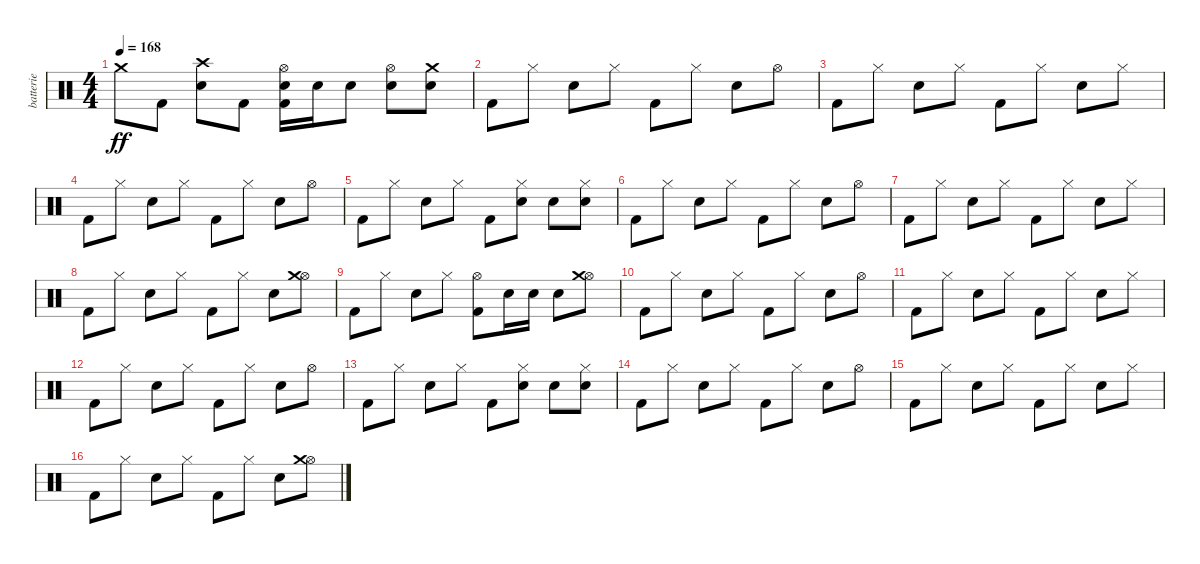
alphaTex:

\track ("batterie" "batterie") {instrument percussion}
\staff {score}
\articulation defaults
\ts (4 4)
\tempo 168
\clef neutral
\ks c "Crash medium (hit)".8{dy ff} "Kick (hit) 2".8
("Electric Snare (hit)" "Crash high (hit)").8 "Kick (hit) 2".8 ("Kick (hit) 2" "Electric Snare (hit)" "Hi-Hat (open)").16 "Electric Snare (hit)".16 "Electric Snare (hit)".8 ("Electric Snare (hit)" "Hi-Hat (open)").8 ("Electric Snare (hit)" "Crash medium (hit)").8 |
"Kick (hit) 2".8 "Hi-Hat (closed)".8 "Electric Snare (hit)".8 "Hi-Hat (closed)".8 "Kick (hit) 2".8 "Hi-Hat (closed)".8 "Electric Snare (hit)".8 "Hi-Hat (open)".8 |
"Kick (hit) 2".8 "Hi-Hat (closed)".8 "Electric Snare (hit)".8 "Hi-Hat (closed)".8 "Kick (hit) 2".8 "Hi-Hat (closed)".8 "Electric Snare (hit)".8 "Hi-Hat (closed)".8 |
"Kick (hit) 2".8 "Hi-Hat (closed)".8 "Electric Snare (hit)".8 "Hi-Hat (closed)".8 "Kick (hit) 2".8 "Hi-Hat (closed)".8 "Electric Snare (hit)".8 "Hi-Hat (open)".8 |
"Kick (hit) 2".8 "Hi-Hat (closed)".8 "Electric Snare (hit)".8 "Hi-Hat (closed)".8 "Kick (hit) 2".8 ("Electric Snare (hit)" "Hi-Hat (closed)").8 "Electric Snare (hit)".8 ("Electric Snare (hit)" "Hi-Hat (closed)").8 |
"Kick (hit) 2".8 "Hi-Hat (closed)".8 "Electric Snare (hit)".8 "Hi-Hat (closed)".8 "Kick (hit) 2".8 "Hi-Hat (closed)".8 "Electric Snare (hit)".8 "Hi-Hat (open)".8 |
"Kick (hit) 2".8 "Hi-Hat (closed)".8 "Electric Snare (hit)".8 "Hi-Hat (closed)".8 "Kick (hit) 2".8 "Hi-Hat (closed)".8 "Electric Snare (hit)".8 "Hi-Hat (closed)".8 |
"Kick (hit) 2".8 "Hi-Hat (closed)".8 "Electric Snare (hit)".8 "Hi-Hat (closed)".8 "Kick (hit) 2".8 "Hi-Hat (closed)".8 "Electric Snare (hit)".8 ("Hi-Hat (open)" "Crash medium (hit)").8 |
"Kick (hit) 2".8 "Hi-Hat (closed)".8 "Electric Snare (hit)".8 "Hi-Hat (closed)".8 ("Kick (hit) 2" "Hi-Hat (open)").8 "Electric Snare (hit)".16 "Electric Snare (hit)".16 "Electric Snare (hit)".8 ("Hi-Hat (open)" "Crash medium (hit)").8 |
"Kick (hit) 2".8 "Hi-Hat (closed)".8 "Electric Snare (hit)".8 "Hi-Hat (closed)".8 "Kick (hit) 2".8 "Hi-Hat (closed)".8 "Electric Snare (hit)".8 "Hi-Hat (open)".8 |
"Kick (hit) 2".8 "Hi-Hat (closed)".8 "Electric Snare (hit)".8 "Hi-Hat (closed)".8 "Kick (hit) 2".8 "Hi-Hat (closed)".8 "Electric Snare (hit)".8 "Hi-Hat (closed)".8 |
"Kick (hit) 2".8 "Hi-Hat (closed)".8 "Electric Snare (hit)".8 "Hi-Hat (closed)".8 "Kick (hit) 2".8 "Hi-Hat (closed)".8 "Electric Snare (hit)".8 "Hi-Hat (open)".8 |
"Kick (hit) 2".8 "Hi-Hat (closed)".8 "Electric Snare (hit)".8 "Hi-Hat (closed)".8 "Kick (hit) 2".8 ("Electric Snare (hit)" "Hi-Hat (closed)").8 "Electric Snare (hit)".8 ("Electric Snare (hit)" "Hi-Hat (closed)").8 |
"Kick (hit) 2".8 "Hi-Hat (closed)".8 "Electric Snare (hit)".8 "Hi-Hat (closed)".8 "Kick (hit) 2".8 "Hi-Hat (closed)".8 "Electric Snare (hit)".8 "Hi-Hat (open)".8 |
"Kick (hit) 2".8 "Hi-Hat (closed)".8 "Electric Snare (hit)".8 "Hi-Hat (closed)".8 "Kick (hit) 2".8 "Hi-Hat (closed)".8 "Electric Snare (hit)".8 "Hi-Hat (closed)".8 |
"Kick (hit) 2".8 "Hi-Hat (closed)".8 "Electric Snare (hit)".8 "Hi-Hat (closed)".8 "Kick (hit) 2".8 "Hi-Hat (closed)".8 "Electric Snare (hit)".8 ("Hi-Hat (open)" "Crash medium (hit)").8
